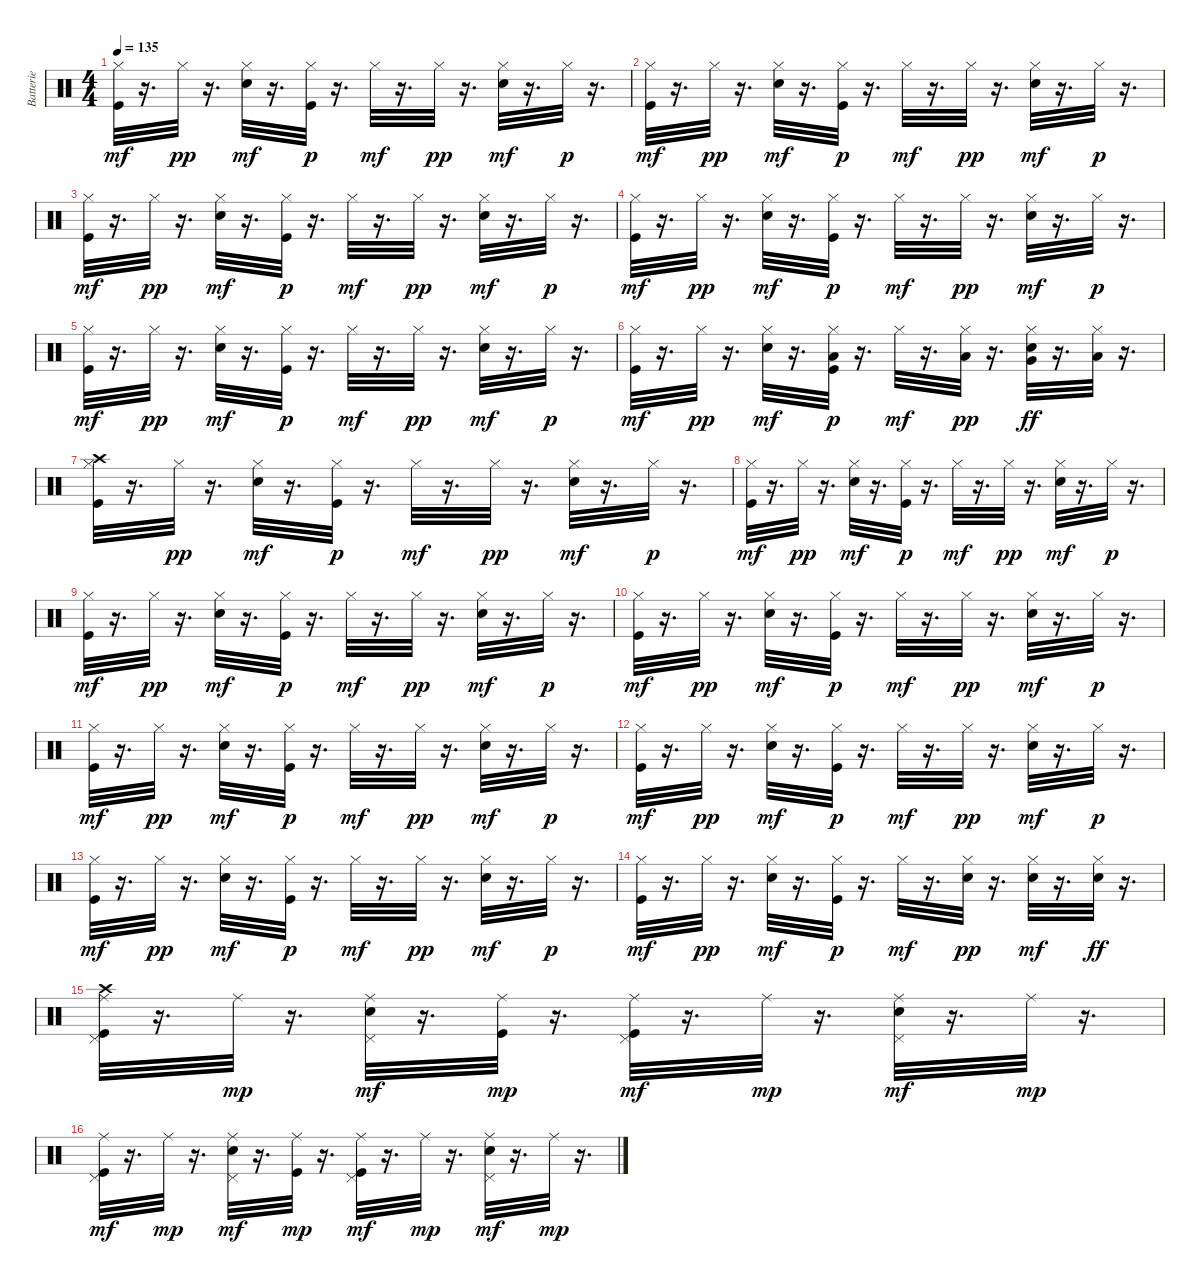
\track ("Batterie" "Batterie") {instrument percussion}
\staff {score}
\articulation defaults
\ts (4 4)
\tempo 135
\clef neutral
\ks c
("Kick (hit)" "Hi-Hat (closed)").32{dy mf} r.16{d} "Hi-Hat (closed)".32{dy pp} r.16{d} ("Electric Snare (hit)" "Hi-Hat (closed)").32{dy mf} r.16{d} ("Kick (hit)" "Hi-Hat (closed)").32{dy p} r.16{d} "Hi-Hat (closed)".32{dy mf} r.16{d} "Hi-Hat (closed)".32{dy pp} r.16{d} ("Electric Snare (hit)" "Hi-Hat (closed)").32{dy mf} r.16{d} "Hi-Hat (closed)".32{dy p} r.16{d} |
("Kick (hit)" "Hi-Hat (closed)").32{dy mf} r.16{d} "Hi-Hat (closed)".32{dy pp} r.16{d} ("Electric Snare (hit)" "Hi-Hat (closed)").32{dy mf} r.16{d} ("Kick (hit)" "Hi-Hat (closed)").32{dy p} r.16{d} "Hi-Hat (closed)".32{dy mf} r.16{d} "Hi-Hat (closed)".32{dy pp} r.16{d} ("Electric Snare (hit)" "Hi-Hat (closed)").32{dy mf} r.16{d} "Hi-Hat (closed)".32{dy p} r.16{d} |
("Kick (hit)" "Hi-Hat (closed)").32{dy mf} r.16{d} "Hi-Hat (closed)".32{dy pp} r.16{d} ("Electric Snare (hit)" "Hi-Hat (closed)").32{dy mf} r.16{d} ("Kick (hit)" "Hi-Hat (closed)").32{dy p} r.16{d} "Hi-Hat (closed)".32{dy mf} r.16{d} "Hi-Hat (closed)".32{dy pp} r.16{d} ("Electric Snare (hit)" "Hi-Hat (closed)").32{dy mf} r.16{d} "Hi-Hat (closed)".32{dy p} r.16{d} |
("Kick (hit)" "Hi-Hat (closed)").32{dy mf} r.16{d} "Hi-Hat (closed)".32{dy pp} r.16{d} ("Electric Snare (hit)" "Hi-Hat (closed)").32{dy mf} r.16{d} ("Kick (hit)" "Hi-Hat (closed)").32{dy p} r.16{d} "Hi-Hat (closed)".32{dy mf} r.16{d} "Hi-Hat (closed)".32{dy pp} r.16{d} ("Electric Snare (hit)" "Hi-Hat (closed)").32{dy mf} r.16{d} "Hi-Hat (closed)".32{dy p} r.16{d} |
("Kick (hit)" "Hi-Hat (closed)").32{dy mf} r.16{d} "Hi-Hat (closed)".32{dy pp} r.16{d} ("Electric Snare (hit)" "Hi-Hat (closed)").32{dy mf} r.16{d} ("Kick (hit)" "Hi-Hat (closed)").32{dy p} r.16{d} "Hi-Hat (closed)".32{dy mf} r.16{d} "Hi-Hat (closed)".32{dy pp} r.16{d} ("Electric Snare (hit)" "Hi-Hat (closed)").32{dy mf} r.16{d} "Hi-Hat (closed)".32{dy p} r.16{d} |
("Kick (hit)" "Hi-Hat (closed)").32{dy mf} r.16{d} "Hi-Hat (closed)".32{dy pp} r.16{d} ("Electric Snare (hit)" "Hi-Hat (closed)").32{dy mf} r.16{d} ("Kick (hit)" "Hi-Hat (closed)" "Low Tom (hit)").32{dy p} r.16{d} "Hi-Hat (closed)".32{dy mf} r.16{d} ("Hi-Hat (closed)" "Low Tom (hit)").32{dy pp} r.16{d} ("Electric Snare (hit)" "Hi-Hat (closed)" "Very Low Tom (hit)").32{dy ff} r.16{d} ("Hi-Hat (closed)" "Low Floor Tom (hit)").32 r.16{d} |
("Kick (hit)" "Hi-Hat (closed)" "Crash high (hit)").32 r.16{d} "Hi-Hat (closed)".32{dy pp} r.16{d} ("Electric Snare (hit)" "Hi-Hat (closed)").32{dy mf} r.16{d} ("Kick (hit)" "Hi-Hat (closed)").32{dy p} r.16{d} "Hi-Hat (closed)".32{dy mf} r.16{d} "Hi-Hat (closed)".32{dy pp} r.16{d} ("Electric Snare (hit)" "Hi-Hat (closed)").32{dy mf} r.16{d} "Hi-Hat (closed)".32{dy p} r.16{d} |
("Kick (hit)" "Hi-Hat (closed)").32{dy mf} r.16{d} "Hi-Hat (closed)".32{dy pp} r.16{d} ("Electric Snare (hit)" "Hi-Hat (closed)").32{dy mf} r.16{d} ("Kick (hit)" "Hi-Hat (closed)").32{dy p} r.16{d} "Hi-Hat (closed)".32{dy mf} r.16{d} "Hi-Hat (closed)".32{dy pp} r.16{d} ("Electric Snare (hit)" "Hi-Hat (closed)").32{dy mf} r.16{d} "Hi-Hat (closed)".32{dy p} r.16{d} |
("Kick (hit)" "Hi-Hat (closed)").32{dy mf} r.16{d} "Hi-Hat (closed)".32{dy pp} r.16{d} ("Electric Snare (hit)" "Hi-Hat (closed)").32{dy mf} r.16{d} ("Kick (hit)" "Hi-Hat (closed)").32{dy p} r.16{d} "Hi-Hat (closed)".32{dy mf} r.16{d} "Hi-Hat (closed)".32{dy pp} r.16{d} ("Electric Snare (hit)" "Hi-Hat (closed)").32{dy mf} r.16{d} "Hi-Hat (closed)".32{dy p} r.16{d} |
("Kick (hit)" "Hi-Hat (closed)").32{dy mf} r.16{d} "Hi-Hat (closed)".32{dy pp} r.16{d} ("Electric Snare (hit)" "Hi-Hat (closed)").32{dy mf} r.16{d} ("Kick (hit)" "Hi-Hat (closed)").32{dy p} r.16{d} "Hi-Hat (closed)".32{dy mf} r.16{d} "Hi-Hat (closed)".32{dy pp} r.16{d} ("Electric Snare (hit)" "Hi-Hat (closed)").32{dy mf} r.16{d} "Hi-Hat (closed)".32{dy p} r.16{d} |
("Kick (hit)" "Hi-Hat (closed)").32{dy mf} r.16{d} "Hi-Hat (closed)".32{dy pp} r.16{d} ("Electric Snare (hit)" "Hi-Hat (closed)").32{dy mf} r.16{d} ("Kick (hit)" "Hi-Hat (closed)").32{dy p} r.16{d} "Hi-Hat (closed)".32{dy mf} r.16{d} "Hi-Hat (closed)".32{dy pp} r.16{d} ("Electric Snare (hit)" "Hi-Hat (closed)").32{dy mf} r.16{d} "Hi-Hat (closed)".32{dy p} r.16{d} |
("Kick (hit)" "Hi-Hat (closed)").32{dy mf} r.16{d} "Hi-Hat (closed)".32{dy pp} r.16{d} ("Electric Snare (hit)" "Hi-Hat (closed)").32{dy mf} r.16{d} ("Kick (hit)" "Hi-Hat (closed)").32{dy p} r.16{d} "Hi-Hat (closed)".32{dy mf} r.16{d} "Hi-Hat (closed)".32{dy pp} r.16{d} ("Electric Snare (hit)" "Hi-Hat (closed)").32{dy mf} r.16{d} "Hi-Hat (closed)".32{dy p} r.16{d} |
("Kick (hit)" "Hi-Hat (closed)").32{dy mf} r.16{d} "Hi-Hat (closed)".32{dy pp} r.16{d} ("Electric Snare (hit)" "Hi-Hat (closed)").32{dy mf} r.16{d} ("Kick (hit)" "Hi-Hat (closed)").32{dy p} r.16{d} "Hi-Hat (closed)".32{dy mf} r.16{d} "Hi-Hat (closed)".32{dy pp} r.16{d} ("Electric Snare (hit)" "Hi-Hat (closed)").32{dy mf} r.16{d} "Hi-Hat (closed)".32{dy p} r.16{d} |
("Kick (hit)" "Hi-Hat (closed)").32{dy mf} r.16{d} "Hi-Hat (closed)".32{dy pp} r.16{d} ("Electric Snare (hit)" "Hi-Hat (closed)").32{dy mf} r.16{d} ("Kick (hit)" "Hi-Hat (closed)").32{dy p} r.16{d} "Hi-Hat (closed)".32{dy mf} r.16{d} ("Hi-Hat (closed)" "Electric Snare (hit)").32{dy pp} r.16{d} ("Electric Snare (hit)" "Hi-Hat (closed)").32{dy mf} r.16{d} ("Hi-Hat (closed)" "Electric Snare (hit)").32{dy ff} r.16{d} |
("Kick (hit)" "Pedal Hi-Hat (hit)" "Ride (middle)" "Crash high (hit)").32 r.16{d} "Ride (middle)".32{dy mp} r.16{d} ("Electric Snare (hit)" "Pedal Hi-Hat (hit)" "Ride (middle)").32{dy mf} r.16{d} ("Kick (hit)" "Ride (middle)").32{dy mp} r.16{d} ("Kick (hit)" "Pedal Hi-Hat (hit)" "Ride (middle)").32{dy mf} r.16{d} "Ride (middle)".32{dy mp} r.16{d} ("Electric Snare (hit)" "Pedal Hi-Hat (hit)" "Ride (middle)").32{dy mf} r.16{d} "Ride (middle)".32{dy mp} r.16{d} |
("Kick (hit)" "Pedal Hi-Hat (hit)" "Ride (middle)").32{dy mf} r.16{d} "Ride (middle)".32{dy mp} r.16{d} ("Electric Snare (hit)" "Pedal Hi-Hat (hit)" "Ride (middle)").32{dy mf} r.16{d} ("Kick (hit)" "Ride (middle)").32{dy mp} r.16{d} ("Kick (hit)" "Pedal Hi-Hat (hit)" "Ride (middle)").32{dy mf} r.16{d} "Ride (middle)".32{dy mp} r.16{d} ("Electric Snare (hit)" "Pedal Hi-Hat (hit)" "Ride (middle)").32{dy mf} r.16{d} "Ride (middle)".32{dy mp} r.16{d}
